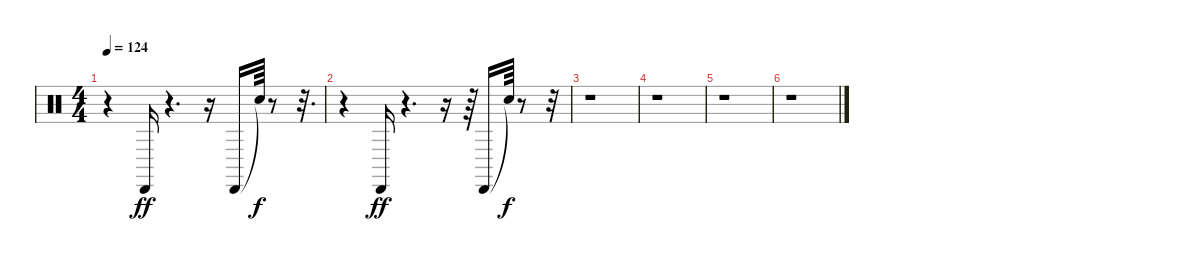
\track "" {instrument percussion}
\staff {score}
\articulation defaults
\ts (4 4)
\tempo 124
\clef neutral
\ks c
r.4{dy ff} "Cabasa (hit)".16 r.4{d} r.16 "Cabasa (hit)".16 "Snare (hit)"{t}.64{dy f} r.8 r.32{d} |
r.4 "Cabasa (hit)".16{dy ff} r.4{d} r.16 r.64 "Cabasa (hit)".16 "Snare (hit)"{t}.64{dy f} r.8 r.32 |
r.1 |
r.1 |
r.1 |
r.1
